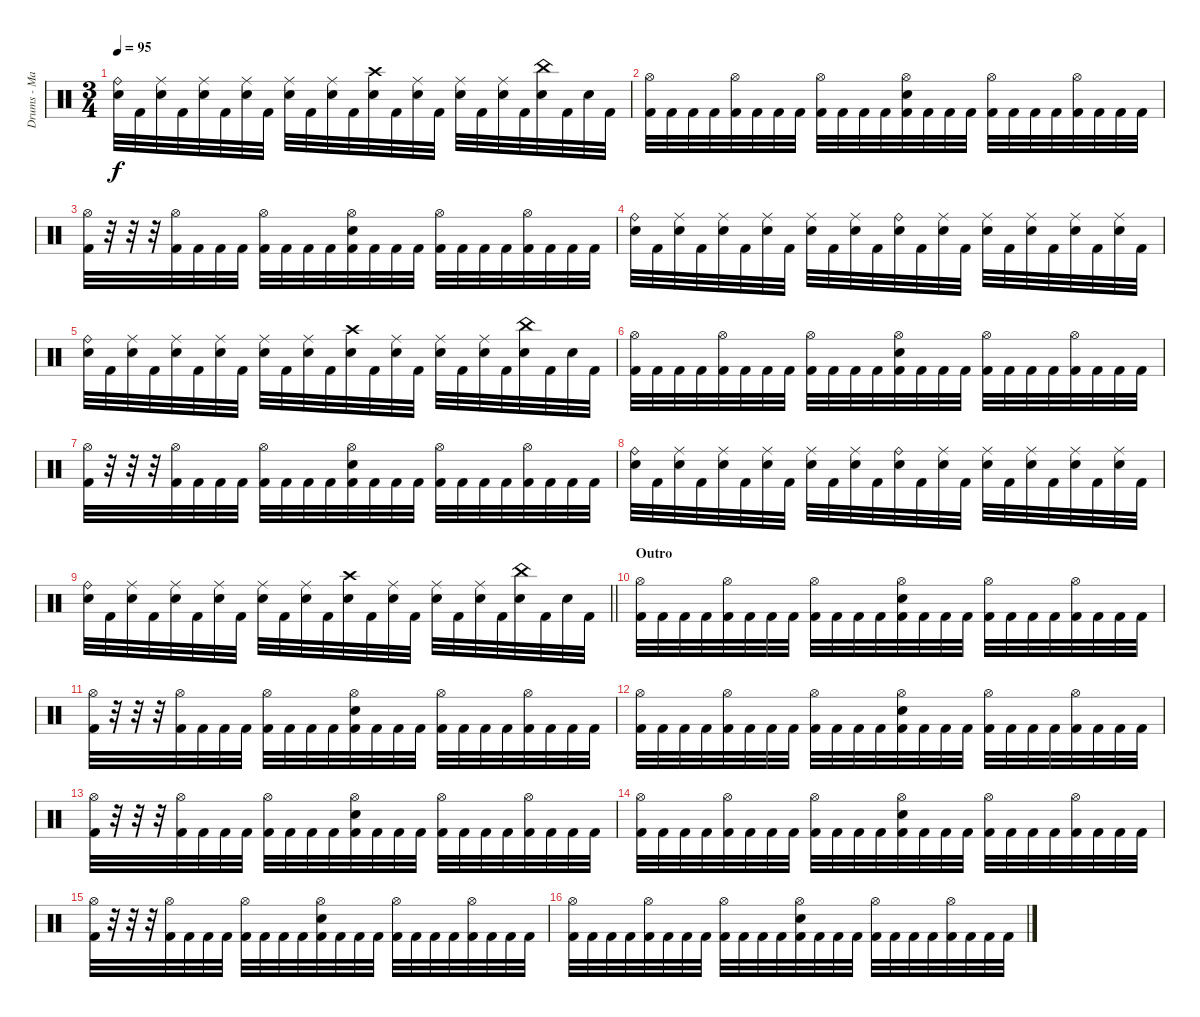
\track ("Drums - Mario Duplantier" "Drums - Ma") {instrument percussion}
\staff {score}
\articulation defaults
\ts (3 4)
\tempo 95
\clef neutral
\ks c
("Ride (bell)" "Electric Snare (hit)").32{dy f} "Kick (hit) 2".32 ("Ride (middle)" "Electric Snare (hit)").32 "Kick (hit) 2".32 ("Ride (middle)" "Electric Snare (hit)").32 "Kick (hit) 2".32 ("Ride (middle)" "Electric Snare (hit)").32 "Kick (hit) 2".32 ("Ride (middle)" "Electric Snare (hit)").32 "Kick (hit) 2".32 ("Ride (middle)" "Electric Snare (hit)").32 "Kick (hit) 2".32 ("Crash high (hit)" "Electric Snare (hit)").32 "Kick (hit) 2".32 ("Ride (middle)" "Electric Snare (hit)").32 "Kick (hit) 2".32 ("Ride (middle)" "Electric Snare (hit)").32 "Kick (hit) 2".32 ("Ride (middle)" "Electric Snare (hit)").32 "Kick (hit) 2".32 ("China (hit)" "Electric Snare (hit)").32 "Kick (hit) 2".32 "Electric Snare (hit)".32 "Kick (hit) 2".32 |
("Hi-Hat (open)" "Kick (hit) 2").32 "Kick (hit) 2".32 "Kick (hit) 2".32 "Kick (hit) 2".32 ("Hi-Hat (open)" "Kick (hit) 2").32 "Kick (hit) 2".32 "Kick (hit) 2".32 "Kick (hit) 2".32 ("Hi-Hat (open)" "Kick (hit) 2").32 "Kick (hit) 2".32 "Kick (hit) 2".32 "Kick (hit) 2".32 ("Hi-Hat (open)" "Electric Snare (hit)" "Kick (hit) 2").32 "Kick (hit) 2".32 "Kick (hit) 2".32 "Kick (hit) 2".32 ("Hi-Hat (open)" "Kick (hit) 2").32 "Kick (hit) 2".32 "Kick (hit) 2".32 "Kick (hit) 2".32 ("Hi-Hat (open)" "Kick (hit) 2").32 "Kick (hit) 2".32 "Kick (hit) 2".32 "Kick (hit) 2".32 |
("Hi-Hat (open)" "Kick (hit) 2").32 r.32 r.32 r.32 ("Hi-Hat (open)" "Kick (hit) 2").32 "Kick (hit) 2".32 "Kick (hit) 2".32 "Kick (hit) 2".32 ("Hi-Hat (open)" "Kick (hit) 2").32 "Kick (hit) 2".32 "Kick (hit) 2".32 "Kick (hit) 2".32 ("Hi-Hat (open)" "Electric Snare (hit)" "Kick (hit) 2").32 "Kick (hit) 2".32 "Kick (hit) 2".32 "Kick (hit) 2".32 ("Hi-Hat (open)" "Kick (hit) 2").32 "Kick (hit) 2".32 "Kick (hit) 2".32 "Kick (hit) 2".32 ("Hi-Hat (open)" "Kick (hit) 2").32 "Kick (hit) 2".32 "Kick (hit) 2".32 "Kick (hit) 2".32 |
("Ride (bell)" "Electric Snare (hit)").32 "Kick (hit) 2".32 ("Ride (middle)" "Electric Snare (hit)").32 "Kick (hit) 2".32 ("Ride (middle)" "Electric Snare (hit)").32 "Kick (hit) 2".32 ("Ride (middle)" "Electric Snare (hit)").32 "Kick (hit) 2".32 ("Ride (middle)" "Electric Snare (hit)").32 "Kick (hit) 2".32 ("Ride (middle)" "Electric Snare (hit)").32 "Kick (hit) 2".32 ("Ride (bell)" "Electric Snare (hit)").32 "Kick (hit) 2".32 ("Ride (middle)" "Electric Snare (hit)").32 "Kick (hit) 2".32 ("Ride (middle)" "Electric Snare (hit)").32 "Kick (hit) 2".32 ("Ride (middle)" "Electric Snare (hit)").32 "Kick (hit) 2".32 ("Ride (middle)" "Electric Snare (hit)").32 "Kick (hit) 2".32 ("Ride (middle)" "Electric Snare (hit)").32 "Kick (hit) 2".32 |
("Ride (bell)" "Electric Snare (hit)").32 "Kick (hit) 2".32 ("Ride (middle)" "Electric Snare (hit)").32 "Kick (hit) 2".32 ("Ride (middle)" "Electric Snare (hit)").32 "Kick (hit) 2".32 ("Ride (middle)" "Electric Snare (hit)").32 "Kick (hit) 2".32 ("Ride (middle)" "Electric Snare (hit)").32 "Kick (hit) 2".32 ("Ride (middle)" "Electric Snare (hit)").32 "Kick (hit) 2".32 ("Crash high (hit)" "Electric Snare (hit)").32 "Kick (hit) 2".32 ("Ride (middle)" "Electric Snare (hit)").32 "Kick (hit) 2".32 ("Ride (middle)" "Electric Snare (hit)").32 "Kick (hit) 2".32 ("Ride (middle)" "Electric Snare (hit)").32 "Kick (hit) 2".32 ("China (hit)" "Electric Snare (hit)").32 "Kick (hit) 2".32 "Electric Snare (hit)".32 "Kick (hit) 2".32 |
("Hi-Hat (open)" "Kick (hit) 2").32 "Kick (hit) 2".32 "Kick (hit) 2".32 "Kick (hit) 2".32 ("Hi-Hat (open)" "Kick (hit) 2").32 "Kick (hit) 2".32 "Kick (hit) 2".32 "Kick (hit) 2".32 ("Hi-Hat (open)" "Kick (hit) 2").32 "Kick (hit) 2".32 "Kick (hit) 2".32 "Kick (hit) 2".32 ("Hi-Hat (open)" "Electric Snare (hit)" "Kick (hit) 2").32 "Kick (hit) 2".32 "Kick (hit) 2".32 "Kick (hit) 2".32 ("Hi-Hat (open)" "Kick (hit) 2").32 "Kick (hit) 2".32 "Kick (hit) 2".32 "Kick (hit) 2".32 ("Hi-Hat (open)" "Kick (hit) 2").32 "Kick (hit) 2".32 "Kick (hit) 2".32 "Kick (hit) 2".32 |
("Hi-Hat (open)" "Kick (hit) 2").32 r.32 r.32 r.32 ("Hi-Hat (open)" "Kick (hit) 2").32 "Kick (hit) 2".32 "Kick (hit) 2".32 "Kick (hit) 2".32 ("Hi-Hat (open)" "Kick (hit) 2").32 "Kick (hit) 2".32 "Kick (hit) 2".32 "Kick (hit) 2".32 ("Hi-Hat (open)" "Electric Snare (hit)" "Kick (hit) 2").32 "Kick (hit) 2".32 "Kick (hit) 2".32 "Kick (hit) 2".32 ("Hi-Hat (open)" "Kick (hit) 2").32 "Kick (hit) 2".32 "Kick (hit) 2".32 "Kick (hit) 2".32 ("Hi-Hat (open)" "Kick (hit) 2").32 "Kick (hit) 2".32 "Kick (hit) 2".32 "Kick (hit) 2".32 |
("Ride (bell)" "Electric Snare (hit)").32 "Kick (hit) 2".32 ("Ride (middle)" "Electric Snare (hit)").32 "Kick (hit) 2".32 ("Ride (middle)" "Electric Snare (hit)").32 "Kick (hit) 2".32 ("Ride (middle)" "Electric Snare (hit)").32 "Kick (hit) 2".32 ("Ride (middle)" "Electric Snare (hit)").32 "Kick (hit) 2".32 ("Ride (middle)" "Electric Snare (hit)").32 "Kick (hit) 2".32 ("Ride (bell)" "Electric Snare (hit)").32 "Kick (hit) 2".32 ("Ride (middle)" "Electric Snare (hit)").32 "Kick (hit) 2".32 ("Ride (middle)" "Electric Snare (hit)").32 "Kick (hit) 2".32 ("Ride (middle)" "Electric Snare (hit)").32 "Kick (hit) 2".32 ("Ride (middle)" "Electric Snare (hit)").32 "Kick (hit) 2".32 ("Ride (middle)" "Electric Snare (hit)").32 "Kick (hit) 2".32 |
\barLineRight lightlight
("Ride (bell)" "Electric Snare (hit)").32 "Kick (hit) 2".32 ("Ride (middle)" "Electric Snare (hit)").32 "Kick (hit) 2".32 ("Ride (middle)" "Electric Snare (hit)").32 "Kick (hit) 2".32 ("Ride (middle)" "Electric Snare (hit)").32 "Kick (hit) 2".32 ("Ride (middle)" "Electric Snare (hit)").32 "Kick (hit) 2".32 ("Ride (middle)" "Electric Snare (hit)").32 "Kick (hit) 2".32 ("Crash high (hit)" "Electric Snare (hit)").32 "Kick (hit) 2".32 ("Ride (middle)" "Electric Snare (hit)").32 "Kick (hit) 2".32 ("Ride (middle)" "Electric Snare (hit)").32 "Kick (hit) 2".32 ("Ride (middle)" "Electric Snare (hit)").32 "Kick (hit) 2".32 ("China (hit)" "Electric Snare (hit)").32 "Kick (hit) 2".32 "Electric Snare (hit)".32 "Kick (hit) 2".32 |
\section ("" "Outro")
("Hi-Hat (open)" "Kick (hit) 2").32 "Kick (hit) 2".32 "Kick (hit) 2".32 "Kick (hit) 2".32 ("Hi-Hat (open)" "Kick (hit) 2").32 "Kick (hit) 2".32 "Kick (hit) 2".32 "Kick (hit) 2".32 ("Hi-Hat (open)" "Kick (hit) 2").32 "Kick (hit) 2".32 "Kick (hit) 2".32 "Kick (hit) 2".32 ("Hi-Hat (open)" "Electric Snare (hit)" "Kick (hit) 2").32 "Kick (hit) 2".32 "Kick (hit) 2".32 "Kick (hit) 2".32 ("Hi-Hat (open)" "Kick (hit) 2").32 "Kick (hit) 2".32 "Kick (hit) 2".32 "Kick (hit) 2".32 ("Hi-Hat (open)" "Kick (hit) 2").32 "Kick (hit) 2".32 "Kick (hit) 2".32 "Kick (hit) 2".32 |
("Hi-Hat (open)" "Kick (hit) 2").32 r.32 r.32 r.32 ("Hi-Hat (open)" "Kick (hit) 2").32 "Kick (hit) 2".32 "Kick (hit) 2".32 "Kick (hit) 2".32 ("Hi-Hat (open)" "Kick (hit) 2").32 "Kick (hit) 2".32 "Kick (hit) 2".32 "Kick (hit) 2".32 ("Hi-Hat (open)" "Electric Snare (hit)" "Kick (hit) 2").32 "Kick (hit) 2".32 "Kick (hit) 2".32 "Kick (hit) 2".32 ("Hi-Hat (open)" "Kick (hit) 2").32 "Kick (hit) 2".32 "Kick (hit) 2".32 "Kick (hit) 2".32 ("Hi-Hat (open)" "Kick (hit) 2").32 "Kick (hit) 2".32 "Kick (hit) 2".32 "Kick (hit) 2".32 |
("Hi-Hat (open)" "Kick (hit) 2").32 "Kick (hit) 2".32 "Kick (hit) 2".32 "Kick (hit) 2".32 ("Hi-Hat (open)" "Kick (hit) 2").32 "Kick (hit) 2".32 "Kick (hit) 2".32 "Kick (hit) 2".32 ("Hi-Hat (open)" "Kick (hit) 2").32 "Kick (hit) 2".32 "Kick (hit) 2".32 "Kick (hit) 2".32 ("Hi-Hat (open)" "Electric Snare (hit)" "Kick (hit) 2").32 "Kick (hit) 2".32 "Kick (hit) 2".32 "Kick (hit) 2".32 ("Hi-Hat (open)" "Kick (hit) 2").32 "Kick (hit) 2".32 "Kick (hit) 2".32 "Kick (hit) 2".32 ("Hi-Hat (open)" "Kick (hit) 2").32 "Kick (hit) 2".32 "Kick (hit) 2".32 "Kick (hit) 2".32 |
("Hi-Hat (open)" "Kick (hit) 2").32 r.32 r.32 r.32 ("Hi-Hat (open)" "Kick (hit) 2").32 "Kick (hit) 2".32 "Kick (hit) 2".32 "Kick (hit) 2".32 ("Hi-Hat (open)" "Kick (hit) 2").32 "Kick (hit) 2".32 "Kick (hit) 2".32 "Kick (hit) 2".32 ("Hi-Hat (open)" "Electric Snare (hit)" "Kick (hit) 2").32 "Kick (hit) 2".32 "Kick (hit) 2".32 "Kick (hit) 2".32 ("Hi-Hat (open)" "Kick (hit) 2").32 "Kick (hit) 2".32 "Kick (hit) 2".32 "Kick (hit) 2".32 ("Hi-Hat (open)" "Kick (hit) 2").32 "Kick (hit) 2".32 "Kick (hit) 2".32 "Kick (hit) 2".32 |
("Hi-Hat (open)" "Kick (hit) 2").32 "Kick (hit) 2".32 "Kick (hit) 2".32 "Kick (hit) 2".32 ("Hi-Hat (open)" "Kick (hit) 2").32 "Kick (hit) 2".32 "Kick (hit) 2".32 "Kick (hit) 2".32 ("Hi-Hat (open)" "Kick (hit) 2").32 "Kick (hit) 2".32 "Kick (hit) 2".32 "Kick (hit) 2".32 ("Hi-Hat (open)" "Electric Snare (hit)" "Kick (hit) 2").32 "Kick (hit) 2".32 "Kick (hit) 2".32 "Kick (hit) 2".32 ("Hi-Hat (open)" "Kick (hit) 2").32 "Kick (hit) 2".32 "Kick (hit) 2".32 "Kick (hit) 2".32 ("Hi-Hat (open)" "Kick (hit) 2").32 "Kick (hit) 2".32 "Kick (hit) 2".32 "Kick (hit) 2".32 |
("Hi-Hat (open)" "Kick (hit) 2").32 r.32 r.32 r.32 ("Hi-Hat (open)" "Kick (hit) 2").32 "Kick (hit) 2".32 "Kick (hit) 2".32 "Kick (hit) 2".32 ("Hi-Hat (open)" "Kick (hit) 2").32 "Kick (hit) 2".32 "Kick (hit) 2".32 "Kick (hit) 2".32 ("Hi-Hat (open)" "Electric Snare (hit)" "Kick (hit) 2").32 "Kick (hit) 2".32 "Kick (hit) 2".32 "Kick (hit) 2".32 ("Hi-Hat (open)" "Kick (hit) 2").32 "Kick (hit) 2".32 "Kick (hit) 2".32 "Kick (hit) 2".32 ("Hi-Hat (open)" "Kick (hit) 2").32 "Kick (hit) 2".32 "Kick (hit) 2".32 "Kick (hit) 2".32 |
("Hi-Hat (open)" "Kick (hit) 2").32 "Kick (hit) 2".32 "Kick (hit) 2".32 "Kick (hit) 2".32 ("Hi-Hat (open)" "Kick (hit) 2").32 "Kick (hit) 2".32 "Kick (hit) 2".32 "Kick (hit) 2".32 ("Hi-Hat (open)" "Kick (hit) 2").32 "Kick (hit) 2".32 "Kick (hit) 2".32 "Kick (hit) 2".32 ("Hi-Hat (open)" "Electric Snare (hit)" "Kick (hit) 2").32 "Kick (hit) 2".32 "Kick (hit) 2".32 "Kick (hit) 2".32 ("Hi-Hat (open)" "Kick (hit) 2").32 "Kick (hit) 2".32 "Kick (hit) 2".32 "Kick (hit) 2".32 ("Hi-Hat (open)" "Kick (hit) 2").32 "Kick (hit) 2".32 "Kick (hit) 2".32 "Kick (hit) 2".32
